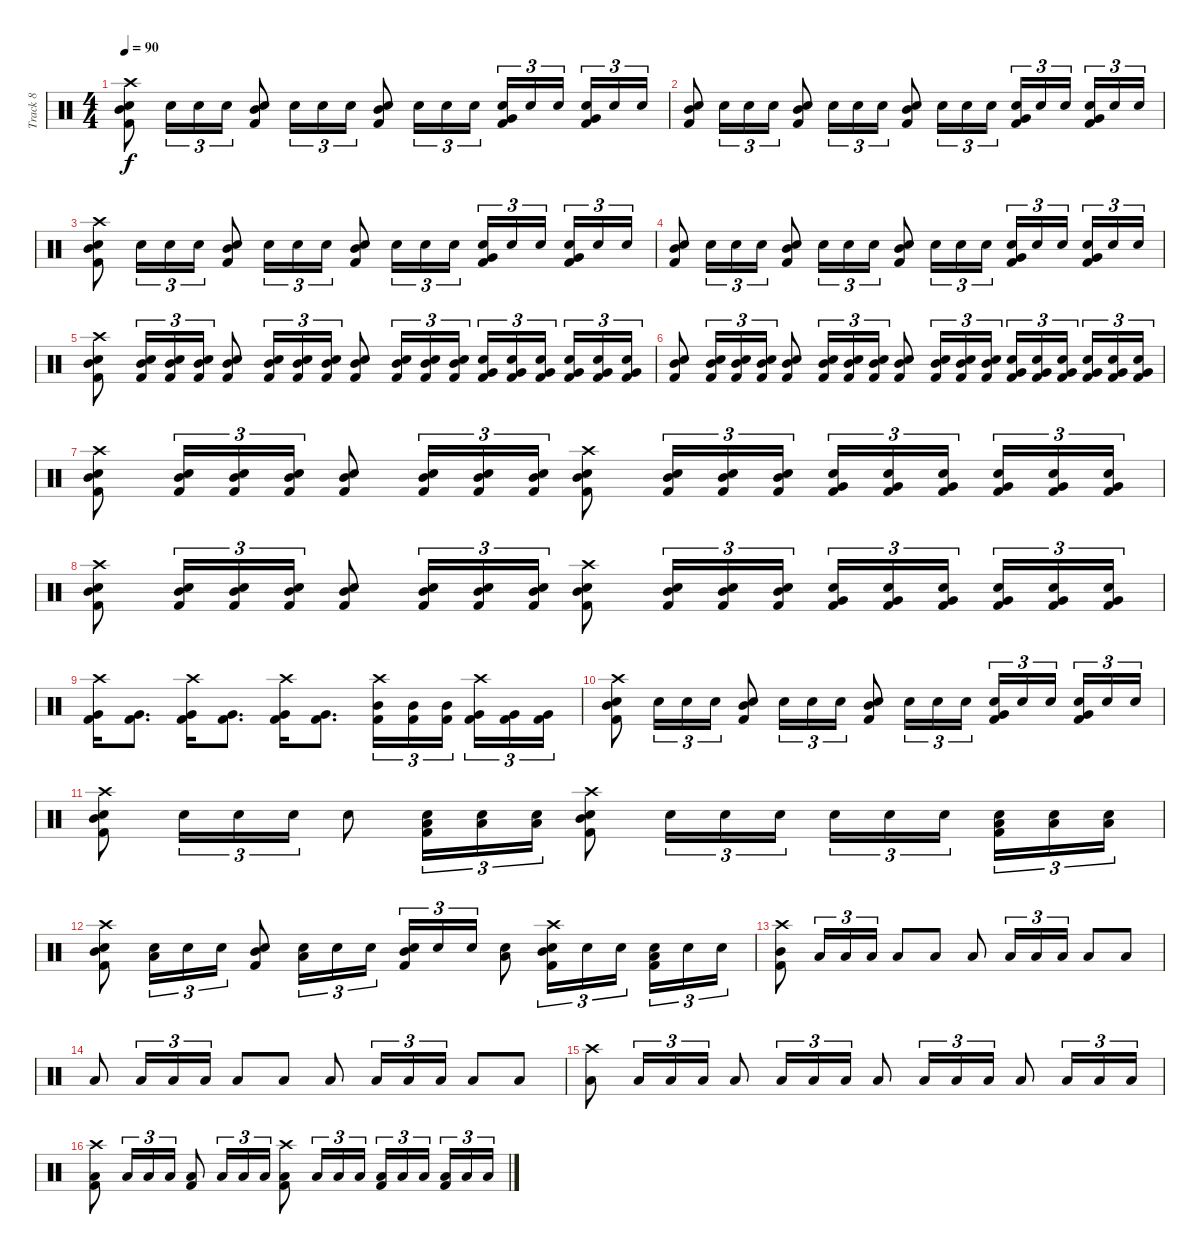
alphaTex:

\track ("Track 8" "Track 8") {instrument percussion}
\staff {score}
\articulation defaults
\ts (4 4)
\tempo 90
\clef neutral
\ks c
("Crash high (hit)" "Mid Tom (hit)" "Snare (hit) 2" "Kick (hit) 2").8{dy f} "Snare (hit) 2".16{tu (3 2)} "Snare (hit) 2".16{tu (3 2)} "Snare (hit) 2".16{tu (3 2)} ("Mid Tom (hit)" "Snare (hit) 2" "Kick (hit) 2").8 "Snare (hit) 2".16{tu (3 2)} "Snare (hit) 2".16{tu (3 2)} "Snare (hit) 2".16{tu (3 2)} ("Mid Tom (hit)" "Snare (hit) 2" "Kick (hit) 2").8 "Snare (hit) 2".16{tu (3 2)} "Snare (hit) 2".16{tu (3 2)} "Snare (hit) 2".16{tu (3 2)} ("Very Low Tom (hit)" "Snare (hit) 2" "Kick (hit) 2").16{tu (3 2)} "Snare (hit) 2".16{tu (3 2)} "Snare (hit) 2".16{tu (3 2) beam splitsecondary} ("Very Low Tom (hit)" "Snare (hit) 2" "Kick (hit) 2").16{tu (3 2)} "Snare (hit) 2".16{tu (3 2)} "Snare (hit) 2".16{tu (3 2)} |
("Mid Tom (hit)" "Snare (hit) 2" "Kick (hit) 2").8 "Snare (hit) 2".16{tu (3 2)} "Snare (hit) 2".16{tu (3 2)} "Snare (hit) 2".16{tu (3 2)} ("Mid Tom (hit)" "Snare (hit) 2" "Kick (hit) 2").8 "Snare (hit) 2".16{tu (3 2)} "Snare (hit) 2".16{tu (3 2)} "Snare (hit) 2".16{tu (3 2)} ("Mid Tom (hit)" "Snare (hit) 2" "Kick (hit) 2").8 "Snare (hit) 2".16{tu (3 2)} "Snare (hit) 2".16{tu (3 2)} "Snare (hit) 2".16{tu (3 2)} ("Very Low Tom (hit)" "Snare (hit) 2" "Kick (hit) 2").16{tu (3 2)} "Snare (hit) 2".16{tu (3 2)} "Snare (hit) 2".16{tu (3 2) beam splitsecondary} ("Very Low Tom (hit)" "Snare (hit) 2" "Kick (hit) 2").16{tu (3 2)} "Snare (hit) 2".16{tu (3 2)} "Snare (hit) 2".16{tu (3 2)} |
("Crash high (hit)" "Mid Tom (hit)" "Snare (hit) 2" "Kick (hit) 2").8 "Snare (hit) 2".16{tu (3 2)} "Snare (hit) 2".16{tu (3 2)} "Snare (hit) 2".16{tu (3 2)} ("Mid Tom (hit)" "Snare (hit) 2" "Kick (hit) 2").8 "Snare (hit) 2".16{tu (3 2)} "Snare (hit) 2".16{tu (3 2)} "Snare (hit) 2".16{tu (3 2)} ("Mid Tom (hit)" "Snare (hit) 2" "Kick (hit) 2").8 "Snare (hit) 2".16{tu (3 2)} "Snare (hit) 2".16{tu (3 2)} "Snare (hit) 2".16{tu (3 2)} ("Very Low Tom (hit)" "Snare (hit) 2" "Kick (hit) 2").16{tu (3 2)} "Snare (hit) 2".16{tu (3 2)} "Snare (hit) 2".16{tu (3 2) beam splitsecondary} ("Very Low Tom (hit)" "Snare (hit) 2" "Kick (hit) 2").16{tu (3 2)} "Snare (hit) 2".16{tu (3 2)} "Snare (hit) 2".16{tu (3 2)} |
("Mid Tom (hit)" "Snare (hit) 2" "Kick (hit) 2").8 "Snare (hit) 2".16{tu (3 2)} "Snare (hit) 2".16{tu (3 2)} "Snare (hit) 2".16{tu (3 2)} ("Mid Tom (hit)" "Snare (hit) 2" "Kick (hit) 2").8 "Snare (hit) 2".16{tu (3 2)} "Snare (hit) 2".16{tu (3 2)} "Snare (hit) 2".16{tu (3 2)} ("Mid Tom (hit)" "Snare (hit) 2" "Kick (hit) 2").8 "Snare (hit) 2".16{tu (3 2)} "Snare (hit) 2".16{tu (3 2)} "Snare (hit) 2".16{tu (3 2)} ("Very Low Tom (hit)" "Snare (hit) 2" "Kick (hit) 2").16{tu (3 2)} "Snare (hit) 2".16{tu (3 2)} "Snare (hit) 2".16{tu (3 2) beam splitsecondary} ("Very Low Tom (hit)" "Snare (hit) 2" "Kick (hit) 2").16{tu (3 2)} "Snare (hit) 2".16{tu (3 2)} "Snare (hit) 2".16{tu (3 2)} |
("Crash high (hit)" "Mid Tom (hit)" "Snare (hit) 2" "Kick (hit) 2").8 ("Mid Tom (hit)" "Snare (hit) 2" "Kick (hit) 2").16{tu (3 2)} ("Mid Tom (hit)" "Snare (hit) 2" "Kick (hit) 2").16{tu (3 2)} ("Mid Tom (hit)" "Snare (hit) 2" "Kick (hit) 2").16{tu (3 2)} ("Mid Tom (hit)" "Snare (hit) 2" "Kick (hit) 2").8 ("Mid Tom (hit)" "Snare (hit) 2" "Kick (hit) 2").16{tu (3 2)} ("Mid Tom (hit)" "Snare (hit) 2" "Kick (hit) 2").16{tu (3 2)} ("Mid Tom (hit)" "Snare (hit) 2" "Kick (hit) 2").16{tu (3 2)} ("Mid Tom (hit)" "Snare (hit) 2" "Kick (hit) 2").8 ("Mid Tom (hit)" "Snare (hit) 2" "Kick (hit) 2").16{tu (3 2)} ("Mid Tom (hit)" "Snare (hit) 2" "Kick (hit) 2").16{tu (3 2)} ("Mid Tom (hit)" "Snare (hit) 2" "Kick (hit) 2").16{tu (3 2)} ("Very Low Tom (hit)" "Snare (hit) 2" "Kick (hit) 2").16{tu (3 2)} ("Very Low Tom (hit)" "Snare (hit) 2" "Kick (hit) 2").16{tu (3 2)} ("Very Low Tom (hit)" "Snare (hit) 2" "Kick (hit) 2").16{tu (3 2) beam splitsecondary} ("Very Low Tom (hit)" "Snare (hit) 2" "Kick (hit) 2").16{tu (3 2)} ("Very Low Tom (hit)" "Snare (hit) 2" "Kick (hit) 2").16{tu (3 2)} ("Very Low Tom (hit)" "Snare (hit) 2" "Kick (hit) 2").16{tu (3 2)} |
("Mid Tom (hit)" "Snare (hit) 2" "Kick (hit) 2").8 ("Mid Tom (hit)" "Snare (hit) 2" "Kick (hit) 2").16{tu (3 2)} ("Mid Tom (hit)" "Snare (hit) 2" "Kick (hit) 2").16{tu (3 2)} ("Mid Tom (hit)" "Snare (hit) 2" "Kick (hit) 2").16{tu (3 2)} ("Mid Tom (hit)" "Snare (hit) 2" "Kick (hit) 2").8 ("Mid Tom (hit)" "Snare (hit) 2" "Kick (hit) 2").16{tu (3 2)} ("Mid Tom (hit)" "Snare (hit) 2" "Kick (hit) 2").16{tu (3 2)} ("Mid Tom (hit)" "Snare (hit) 2" "Kick (hit) 2").16{tu (3 2)} ("Mid Tom (hit)" "Snare (hit) 2" "Kick (hit) 2").8 ("Mid Tom (hit)" "Snare (hit) 2" "Kick (hit) 2").16{tu (3 2)} ("Mid Tom (hit)" "Snare (hit) 2" "Kick (hit) 2").16{tu (3 2)} ("Mid Tom (hit)" "Snare (hit) 2" "Kick (hit) 2").16{tu (3 2)} ("Very Low Tom (hit)" "Snare (hit) 2" "Kick (hit) 2").16{tu (3 2)} ("Very Low Tom (hit)" "Snare (hit) 2" "Kick (hit) 2").16{tu (3 2)} ("Very Low Tom (hit)" "Snare (hit) 2" "Kick (hit) 2").16{tu (3 2) beam splitsecondary} ("Very Low Tom (hit)" "Snare (hit) 2" "Kick (hit) 2").16{tu (3 2)} ("Very Low Tom (hit)" "Snare (hit) 2" "Kick (hit) 2").16{tu (3 2)} ("Very Low Tom (hit)" "Snare (hit) 2" "Kick (hit) 2").16{tu (3 2)} |
("Crash high (hit)" "Mid Tom (hit)" "Snare (hit) 2" "Kick (hit) 2").8 ("Mid Tom (hit)" "Snare (hit) 2" "Kick (hit) 2").16{tu (3 2)} ("Mid Tom (hit)" "Snare (hit) 2" "Kick (hit) 2").16{tu (3 2)} ("Mid Tom (hit)" "Snare (hit) 2" "Kick (hit) 2").16{tu (3 2)} ("Mid Tom (hit)" "Snare (hit) 2" "Kick (hit) 2").8 ("Mid Tom (hit)" "Snare (hit) 2" "Kick (hit) 2").16{tu (3 2)} ("Mid Tom (hit)" "Snare (hit) 2" "Kick (hit) 2").16{tu (3 2)} ("Mid Tom (hit)" "Snare (hit) 2" "Kick (hit) 2").16{tu (3 2)} ("Crash high (hit)" "Mid Tom (hit)" "Snare (hit) 2" "Kick (hit) 2").8 ("Mid Tom (hit)" "Snare (hit) 2" "Kick (hit) 2").16{tu (3 2)} ("Mid Tom (hit)" "Snare (hit) 2" "Kick (hit) 2").16{tu (3 2)} ("Mid Tom (hit)" "Snare (hit) 2" "Kick (hit) 2").16{tu (3 2)} ("Very Low Tom (hit)" "Snare (hit) 2" "Kick (hit) 2").16{tu (3 2)} ("Very Low Tom (hit)" "Snare (hit) 2" "Kick (hit) 2").16{tu (3 2)} ("Very Low Tom (hit)" "Snare (hit) 2" "Kick (hit) 2").16{tu (3 2) beam splitsecondary} ("Very Low Tom (hit)" "Snare (hit) 2" "Kick (hit) 2").16{tu (3 2)} ("Very Low Tom (hit)" "Snare (hit) 2" "Kick (hit) 2").16{tu (3 2)} ("Very Low Tom (hit)" "Snare (hit) 2" "Kick (hit) 2").16{tu (3 2)} |
("Crash high (hit)" "Mid Tom (hit)" "Snare (hit) 2" "Kick (hit) 2").8 ("Mid Tom (hit)" "Snare (hit) 2" "Kick (hit) 2").16{tu (3 2)} ("Mid Tom (hit)" "Snare (hit) 2" "Kick (hit) 2").16{tu (3 2)} ("Mid Tom (hit)" "Snare (hit) 2" "Kick (hit) 2").16{tu (3 2)} ("Mid Tom (hit)" "Snare (hit) 2" "Kick (hit) 2").8 ("Mid Tom (hit)" "Snare (hit) 2" "Kick (hit) 2").16{tu (3 2)} ("Mid Tom (hit)" "Snare (hit) 2" "Kick (hit) 2").16{tu (3 2)} ("Mid Tom (hit)" "Snare (hit) 2" "Kick (hit) 2").16{tu (3 2)} ("Crash high (hit)" "Mid Tom (hit)" "Snare (hit) 2" "Kick (hit) 2").8 ("Mid Tom (hit)" "Snare (hit) 2" "Kick (hit) 2").16{tu (3 2)} ("Mid Tom (hit)" "Snare (hit) 2" "Kick (hit) 2").16{tu (3 2)} ("Mid Tom (hit)" "Snare (hit) 2" "Kick (hit) 2").16{tu (3 2)} ("Very Low Tom (hit)" "Snare (hit) 2" "Kick (hit) 2").16{tu (3 2)} ("Very Low Tom (hit)" "Snare (hit) 2" "Kick (hit) 2").16{tu (3 2)} ("Very Low Tom (hit)" "Snare (hit) 2" "Kick (hit) 2").16{tu (3 2) beam splitsecondary} ("Very Low Tom (hit)" "Snare (hit) 2" "Kick (hit) 2").16{tu (3 2)} ("Very Low Tom (hit)" "Snare (hit) 2" "Kick (hit) 2").16{tu (3 2)} ("Very Low Tom (hit)" "Snare (hit) 2" "Kick (hit) 2").16{tu (3 2)} |
("Crash high (hit)" "Very Low Tom (hit)" "Kick (hit) 2").16 ("Very Low Tom (hit)" "Kick (hit) 2").8{d} ("Crash high (hit)" "Very Low Tom (hit)" "Kick (hit) 2").16 ("Very Low Tom (hit)" "Kick (hit) 2").8{d} ("Crash high (hit)" "Very Low Tom (hit)" "Kick (hit) 2").16 ("Very Low Tom (hit)" "Kick (hit) 2").8{d} ("Crash high (hit)" "Mid Tom (hit)" "Kick (hit) 2").16{tu (3 2)} ("Mid Tom (hit)" "Kick (hit) 2").16{tu (3 2)} ("Mid Tom (hit)" "Kick (hit) 2").16{tu (3 2) beam splitsecondary} ("Crash high (hit)" "Very Low Tom (hit)" "Kick (hit) 2").16{tu (3 2)} ("Very Low Tom (hit)" "Kick (hit) 2").16{tu (3 2)} ("Very Low Tom (hit)" "Kick (hit) 2").16{tu (3 2)} |
("Crash high (hit)" "Mid Tom (hit)" "Snare (hit) 2" "Kick (hit) 2").8 "Snare (hit) 2".16{tu (3 2)} "Snare (hit) 2".16{tu (3 2)} "Snare (hit) 2".16{tu (3 2)} ("Mid Tom (hit)" "Snare (hit) 2" "Kick (hit) 2").8 "Snare (hit) 2".16{tu (3 2)} "Snare (hit) 2".16{tu (3 2)} "Snare (hit) 2".16{tu (3 2)} ("Mid Tom (hit)" "Snare (hit) 2" "Kick (hit) 2").8 "Snare (hit) 2".16{tu (3 2)} "Snare (hit) 2".16{tu (3 2)} "Snare (hit) 2".16{tu (3 2)} ("Very Low Tom (hit)" "Snare (hit) 2" "Kick (hit) 2").16{tu (3 2)} "Snare (hit) 2".16{tu (3 2)} "Snare (hit) 2".16{tu (3 2) beam splitsecondary} ("Very Low Tom (hit)" "Snare (hit) 2" "Kick (hit) 2").16{tu (3 2)} "Snare (hit) 2".16{tu (3 2)} "Snare (hit) 2".16{tu (3 2)} |
("Crash high (hit)" "Mid Tom (hit)" "Snare (hit) 2" "Kick (hit) 2").8 "Snare (hit) 2".16{tu (3 2)} "Snare (hit) 2".16{tu (3 2)} "Snare (hit) 2".16{tu (3 2)} "Snare (hit) 2".8 ("Low Tom (hit)" "Snare (hit) 2" "Kick (hit) 2").16{tu (3 2)} ("Low Tom (hit)" "Snare (hit) 2").16{tu (3 2)} ("Low Tom (hit)" "Snare (hit) 2").16{tu (3 2)} ("Crash high (hit)" "Mid Tom (hit)" "Snare (hit) 2" "Kick (hit) 2").8 "Snare (hit) 2".16{tu (3 2)} "Snare (hit) 2".16{tu (3 2)} "Snare (hit) 2".16{tu (3 2)} "Snare (hit) 2".16{tu (3 2)} "Snare (hit) 2".16{tu (3 2)} "Snare (hit) 2".16{tu (3 2) beam splitsecondary} ("Low Tom (hit)" "Snare (hit) 2" "Kick (hit) 2").16{tu (3 2)} ("Low Tom (hit)" "Snare (hit) 2").16{tu (3 2)} ("Low Tom (hit)" "Snare (hit) 2").16{tu (3 2)} |
("Crash high (hit)" "Mid Tom (hit)" "Snare (hit) 2" "Kick (hit) 2").8 ("Low Tom (hit)" "Snare (hit) 2").16{tu (3 2)} "Snare (hit) 2".16{tu (3 2)} "Snare (hit) 2".16{tu (3 2)} ("Mid Tom (hit)" "Snare (hit) 2" "Kick (hit) 2").8 ("Low Tom (hit)" "Snare (hit) 2").16{tu (3 2)} "Snare (hit) 2".16{tu (3 2)} "Snare (hit) 2".16{tu (3 2)} ("Mid Tom (hit)" "Snare (hit) 2" "Kick (hit) 2").16{tu (3 2)} "Snare (hit) 2".16{tu (3 2)} "Snare (hit) 2".16{tu (3 2)} ("Low Tom (hit)" "Snare (hit) 2").8 ("Crash high (hit)" "Mid Tom (hit)" "Snare (hit) 2" "Kick (hit) 2").16{tu (3 2)} "Snare (hit) 2".16{tu (3 2)} "Snare (hit) 2".16{tu (3 2) beam splitsecondary} ("Low Tom (hit)" "Snare (hit) 2" "Kick (hit) 2").16{tu (3 2)} "Snare (hit) 2".16{tu (3 2)} "Snare (hit) 2".16{tu (3 2)} |
("Crash high (hit)" "Mid Tom (hit)" "Kick (hit) 2").8 "Low Tom (hit)".16{tu (3 2)} "Low Tom (hit)".16{tu (3 2)} "Low Tom (hit)".16{tu (3 2)} "Low Tom (hit)".8 "Low Tom (hit)".8 "Low Tom (hit)".8 "Low Tom (hit)".16{tu (3 2)} "Low Tom (hit)".16{tu (3 2)} "Low Tom (hit)".16{tu (3 2)} "Low Tom (hit)".8 "Low Tom (hit)".8 |
"Low Tom (hit)".8 "Low Tom (hit)".16{tu (3 2)} "Low Tom (hit)".16{tu (3 2)} "Low Tom (hit)".16{tu (3 2)} "Low Tom (hit)".8 "Low Tom (hit)".8 "Low Tom (hit)".8 "Low Tom (hit)".16{tu (3 2)} "Low Tom (hit)".16{tu (3 2)} "Low Tom (hit)".16{tu (3 2)} "Low Tom (hit)".8 "Low Tom (hit)".8 |
("Crash high (hit)" "Low Tom (hit)").8 "Low Tom (hit)".16{tu (3 2)} "Low Tom (hit)".16{tu (3 2)} "Low Tom (hit)".16{tu (3 2)} "Low Tom (hit)".8 "Low Tom (hit)".16{tu (3 2)} "Low Tom (hit)".16{tu (3 2)} "Low Tom (hit)".16{tu (3 2)} "Low Tom (hit)".8 "Low Tom (hit)".16{tu (3 2)} "Low Tom (hit)".16{tu (3 2)} "Low Tom (hit)".16{tu (3 2)} "Low Tom (hit)".8 "Low Tom (hit)".16{tu (3 2)} "Low Tom (hit)".16{tu (3 2)} "Low Tom (hit)".16{tu (3 2)} |
("Crash high (hit)" "Low Tom (hit)" "Kick (hit) 2").8 "Low Tom (hit)".16{tu (3 2)} "Low Tom (hit)".16{tu (3 2)} "Low Tom (hit)".16{tu (3 2)} ("Low Tom (hit)" "Kick (hit) 2").8 "Low Tom (hit)".16{tu (3 2)} "Low Tom (hit)".16{tu (3 2)} "Low Tom (hit)".16{tu (3 2)} ("Crash high (hit)" "Low Tom (hit)" "Kick (hit) 2").8 "Low Tom (hit)".16{tu (3 2)} "Low Tom (hit)".16{tu (3 2)} "Low Tom (hit)".16{tu (3 2)} ("Low Tom (hit)" "Kick (hit) 2").16{tu (3 2)} "Low Tom (hit)".16{tu (3 2)} "Low Tom (hit)".16{tu (3 2) beam splitsecondary} ("Low Tom (hit)" "Kick (hit) 2").16{tu (3 2)} "Low Tom (hit)".16{tu (3 2)} "Low Tom (hit)".16{tu (3 2)}
